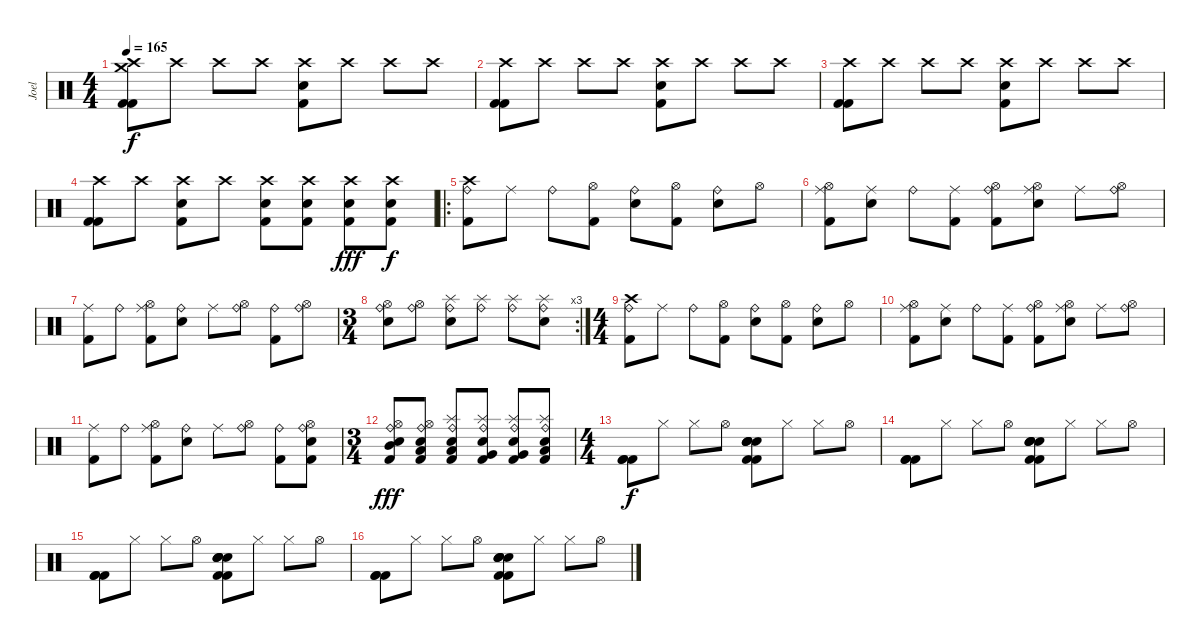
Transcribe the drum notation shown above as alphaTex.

\track ("Joel" "Joel") {instrument percussion}
\staff {score}
\articulation defaults
\ts (4 4)
\tempo 165
\clef neutral
\ks c
("Crash high (hit)" "Crash medium (hit)" "Kick (hit) 2" "Kick (hit) 2").8{dy f} "Crash high (hit)".8 "Crash high (hit)".8 "Crash high (hit)".8 ("Crash high (hit)" "Kick (hit) 2" "Electric Snare (hit)").8 "Crash high (hit)".8 "Crash high (hit)".8 "Crash high (hit)".8 |
("Crash high (hit)" "Kick (hit) 2" "Kick (hit) 2").8 "Crash high (hit)".8 "Crash high (hit)".8 "Crash high (hit)".8 ("Crash high (hit)" "Kick (hit) 2" "Electric Snare (hit)").8 "Crash high (hit)".8 "Crash high (hit)".8 "Crash high (hit)".8 |
("Crash high (hit)" "Kick (hit) 2" "Kick (hit) 2").8 "Crash high (hit)".8 "Crash high (hit)".8 "Crash high (hit)".8 ("Crash high (hit)" "Kick (hit) 2" "Electric Snare (hit)").8 "Crash high (hit)".8 "Crash high (hit)".8 "Crash high (hit)".8 |
("Crash high (hit)" "Kick (hit) 2" "Kick (hit) 2").8 "Crash high (hit)".8 ("Crash high (hit)" "Kick (hit) 2" "Electric Snare (hit)").8 "Crash high (hit)".8 ("Crash high (hit)" "Kick (hit) 2" "Electric Snare (hit)").8 ("Crash high (hit)" "Kick (hit) 2" "Electric Snare (hit)").8 ("Crash high (hit)" "Kick (hit) 2" "Electric Snare (hit)").8{dy fff} ("Crash high (hit)" "Kick (hit) 2" "Electric Snare (hit)").8{dy f} |
\ro
("Crash high (hit)" "Ride (bell)" "Kick (hit) 2").8 "Ride (middle)".8 "Ride (bell)".8 ("Hi-Hat (open)" "Kick (hit) 2").8 ("Ride (bell)" "Electric Snare (hit)").8 ("Hi-Hat (open)" "Kick (hit) 2").8 ("Ride (bell)" "Electric Snare (hit)").8 "Hi-Hat (open)".8 |
("Ride (middle)" "Hi-Hat (open)" "Kick (hit) 2").8 ("Ride (middle)" "Electric Snare (hit)").8 "Ride (bell)".8 ("Ride (middle)" "Kick (hit) 2").8 ("Ride (bell)" "Hi-Hat (open)" "Kick (hit) 2").8 ("Ride (middle)" "Hi-Hat (open)" "Electric Snare (hit)").8 "Ride (middle)".8 ("Ride (bell)" "Hi-Hat (open)").8 |
("Ride (middle)" "Kick (hit) 2").8 "Ride (bell)".8 ("Ride (middle)" "Hi-Hat (open)" "Kick (hit) 2").8 ("Ride (bell)" "Electric Snare (hit)").8 "Ride (middle)".8 ("Ride (bell)" "Hi-Hat (open)").8 ("Ride (bell)" "Kick (hit) 2").8 ("Ride (bell)" "Hi-Hat (open)").8 |
\rc 3
\ts (3 4)
("Ride (bell)" "Hi-Hat (open)" "Electric Snare (hit)").8 ("Ride (bell)" "Hi-Hat (open)").8 ("Ride (bell)" "Splash (hit)" "Electric Snare (hit)").8 ("Ride (bell)" "Splash (hit)").8 ("Ride (bell)" "Splash (hit)").8 ("Ride (bell)" "Splash (hit)" "Electric Snare (hit)").8 |
\ts (4 4)
("Crash high (hit)" "Ride (bell)" "Kick (hit) 2").8 "Ride (middle)".8 "Ride (bell)".8 ("Hi-Hat (open)" "Kick (hit) 2").8 ("Ride (bell)" "Electric Snare (hit)").8 ("Hi-Hat (open)" "Kick (hit) 2").8 ("Ride (bell)" "Electric Snare (hit)").8 "Hi-Hat (open)".8 |
("Ride (middle)" "Hi-Hat (open)" "Kick (hit) 2").8 ("Ride (middle)" "Electric Snare (hit)").8 "Ride (bell)".8 ("Ride (middle)" "Kick (hit) 2").8 ("Ride (bell)" "Hi-Hat (open)" "Kick (hit) 2").8 ("Ride (middle)" "Hi-Hat (open)" "Electric Snare (hit)").8 "Ride (middle)".8 ("Ride (bell)" "Hi-Hat (open)").8 |
("Ride (middle)" "Kick (hit) 2").8 "Ride (bell)".8 ("Ride (middle)" "Hi-Hat (open)" "Kick (hit) 2").8 ("Ride (bell)" "Electric Snare (hit)").8 "Ride (middle)".8 ("Ride (bell)" "Hi-Hat (open)").8 ("Ride (bell)" "Kick (hit) 2").8 ("Ride (bell)" "Hi-Hat (open)" "Kick (hit) 2" "Electric Snare (hit)").8 |
\ts (3 4)
("Ride (bell)" "Hi-Hat (open)" "Mid Tom (hit)" "Kick (hit) 2" "Electric Snare (hit)").8{dy fff} ("Ride (bell)" "Hi-Hat (open)" "Low Tom (hit)" "Kick (hit) 2" "Electric Snare (hit)").8 ("Ride (bell)" "Splash (hit)" "Low Tom (hit)" "Kick (hit) 2" "Electric Snare (hit)").8 ("Ride (bell)" "Splash (hit)" "Very Low Tom (hit)" "Kick (hit) 2" "Electric Snare (hit)").8 ("Ride (bell)" "Splash (hit)" "Very Low Tom (hit)" "Kick (hit) 2" "Electric Snare (hit)").8 ("Ride (bell)" "Splash (hit)" "Low Floor Tom (hit)" "Kick (hit) 2" "Electric Snare (hit)").8 |
\ts (4 4)
("Kick (hit) 2" "Kick (hit) 2" "Kick (hit) 2").8{dy f} "Hi-Hat (closed)".8 "Hi-Hat (closed)".8 "Hi-Hat (open)".8 ("Kick (hit) 2" "Electric Snare (hit)" "Electric Snare (hit)" "Kick (hit) 2" "Electric Snare (hit)" "Electric Snare (hit)").8 "Hi-Hat (closed)".8 "Hi-Hat (closed)".8 "Hi-Hat (open)".8 |
("Kick (hit) 2" "Kick (hit) 2" "Kick (hit) 2").8 "Hi-Hat (closed)".8 "Hi-Hat (closed)".8 "Hi-Hat (open)".8 ("Kick (hit) 2" "Electric Snare (hit)" "Electric Snare (hit)" "Kick (hit) 2" "Electric Snare (hit)" "Electric Snare (hit)").8 "Hi-Hat (closed)".8 "Hi-Hat (closed)".8 "Hi-Hat (open)".8 |
("Kick (hit) 2" "Kick (hit) 2" "Kick (hit) 2").8 "Hi-Hat (closed)".8 "Hi-Hat (closed)".8 "Hi-Hat (open)".8 ("Kick (hit) 2" "Electric Snare (hit)" "Electric Snare (hit)" "Kick (hit) 2" "Electric Snare (hit)" "Electric Snare (hit)").8 "Hi-Hat (closed)".8 "Hi-Hat (closed)".8 "Hi-Hat (open)".8 |
("Kick (hit) 2" "Kick (hit) 2" "Kick (hit) 2").8 "Hi-Hat (closed)".8 "Hi-Hat (closed)".8 "Hi-Hat (open)".8 ("Kick (hit) 2" "Electric Snare (hit)" "Electric Snare (hit)" "Kick (hit) 2" "Electric Snare (hit)" "Electric Snare (hit)").8 "Hi-Hat (closed)".8 "Hi-Hat (closed)".8 "Hi-Hat (open)".8
